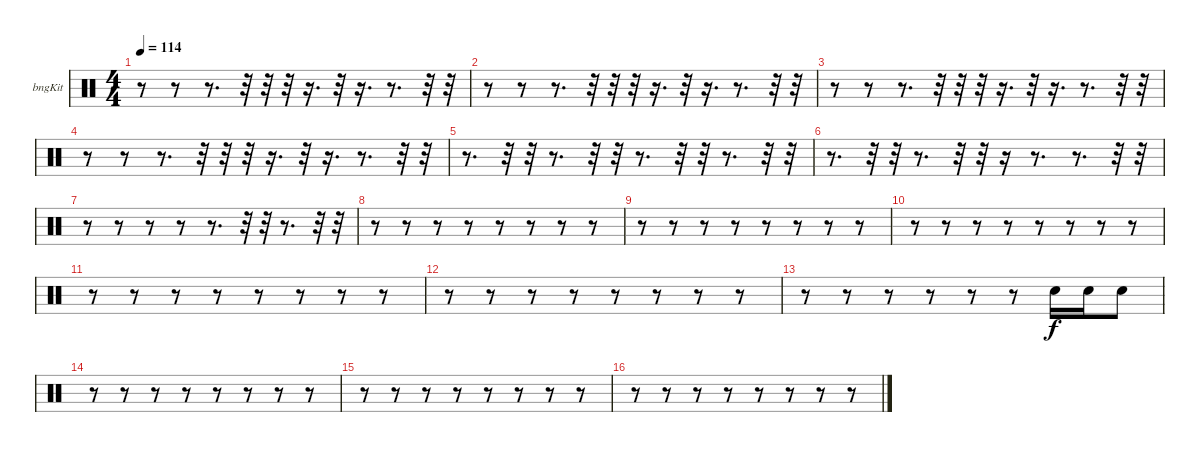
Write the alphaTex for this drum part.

\bracketExtendMode groupsimilarinstruments
\firstSystemTrackNameOrientation horizontal
\otherSystemsTrackNameOrientation horizontal
\track ("Bongos" "bngKit") {instrument percussion}
\staff {score}
\articulation defaults
\ts (4 4)
\tempo 114
\clef neutral
\ks c
r.8{dy f} r.8 r.8{d} r.32 r.32 r.32 r.16{d} r.32 r.16{d} r.8{d} r.32 r.32 |
r.8 r.8 r.8{d} r.32 r.32 r.32 r.16{d} r.32 r.16{d} r.8{d} r.32 r.32 |
r.8 r.8 r.8{d} r.32 r.32 r.32 r.16{d} r.32 r.16{d} r.8{d} r.32 r.32 |
r.8 r.8 r.8{d} r.32 r.32 r.32 r.16{d} r.32 r.16{d} r.8{d} r.32 r.32 |
r.8{d} r.32 r.32 r.8{d} r.32 r.32 r.8{d} r.32 r.32 r.8{d} r.32 r.32 |
r.8{d} r.32 r.32 r.8{d} r.32 r.32 r.16 r.8{d} r.8{d} r.32 r.32 |
r.8 r.8 r.8 r.8 r.8{d} r.32 r.32 r.8{d} r.32 r.32 |
r.8 r.8 r.8 r.8 r.8 r.8 r.8 r.8 |
r.8 r.8 r.8 r.8 r.8 r.8 r.8 r.8 |
r.8 r.8 r.8 r.8 r.8 r.8 r.8 r.8 |
r.8 r.8 r.8 r.8 r.8 r.8 r.8 r.8 |
r.8 r.8 r.8 r.8 r.8 r.8 r.8 r.8 |
r.8 r.8 r.8 r.8 r.8 r.8 "Snare (hit) 2".16 "Snare (hit) 2".16 "Snare (hit) 2".8 |
r.8 r.8 r.8 r.8 r.8 r.8 r.8 r.8 |
r.8 r.8 r.8 r.8 r.8 r.8 r.8 r.8 |
r.8 r.8 r.8 r.8 r.8 r.8 r.8 r.8
